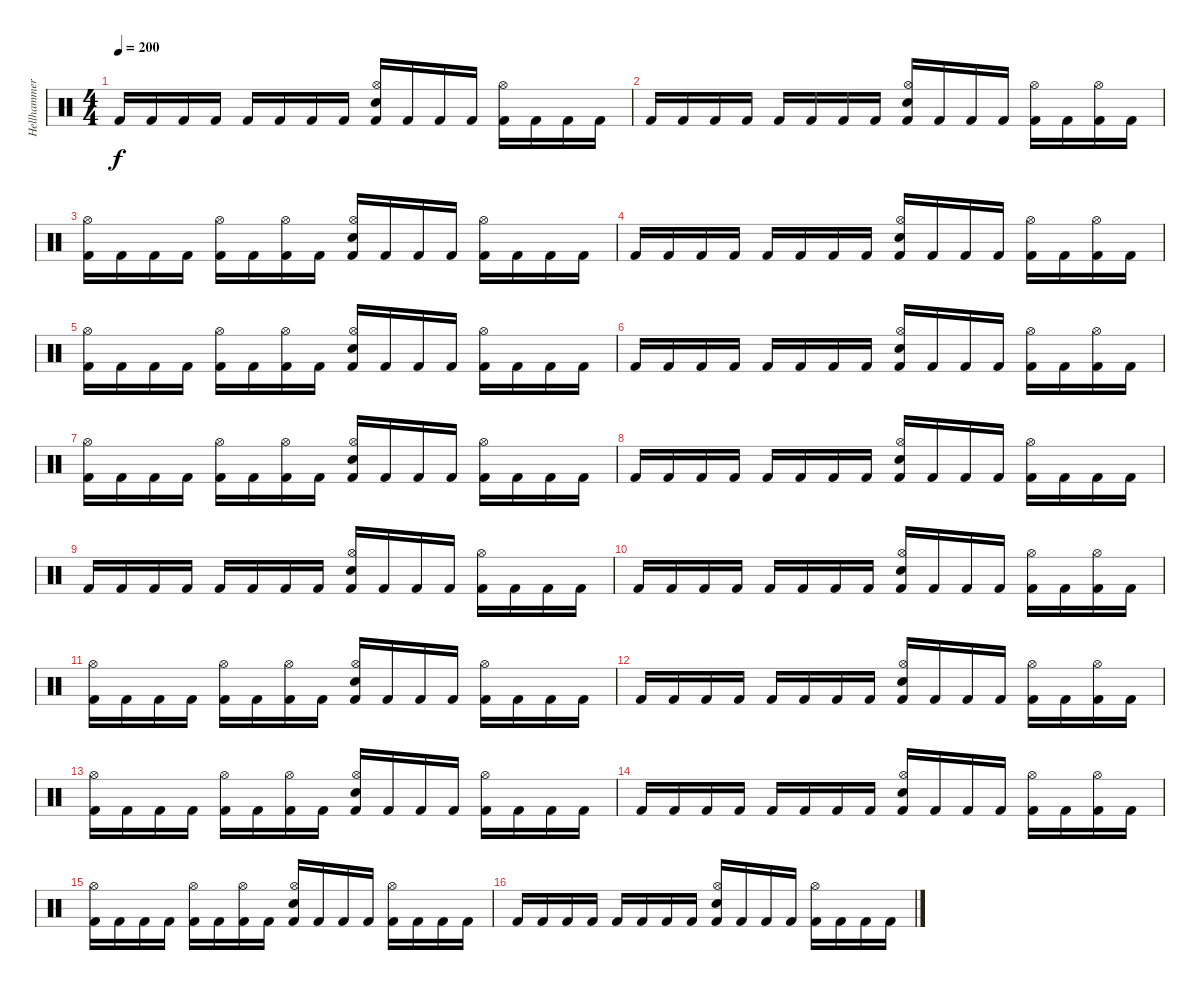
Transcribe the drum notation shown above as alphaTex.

\track ("Hellhammer" "Hellhammer") {instrument percussion}
\staff {score}
\articulation defaults
\ts (4 4)
\tempo 200
\clef neutral
\ks c "Kick (hit) 2".16{dy f} "Kick (hit) 2".16 "Kick (hit) 2".16 "Kick (hit) 2".16 "Kick (hit) 2".16 "Kick (hit) 2".16 "Kick (hit) 2".16 "Kick (hit) 2".16
("Hi-Hat (open)" "Electric Snare (hit)" "Kick (hit) 2").16 "Kick (hit) 2".16 "Kick (hit) 2".16 "Kick (hit) 2".16 ("Hi-Hat (open)" "Kick (hit) 2").16 "Kick (hit) 2".16 "Kick (hit) 2".16 "Kick (hit) 2".16 |
"Kick (hit) 2".16{balance 8} "Kick (hit) 2".16 "Kick (hit) 2".16 "Kick (hit) 2".16 "Kick (hit) 2".16 "Kick (hit) 2".16 "Kick (hit) 2".16 "Kick (hit) 2".16 ("Hi-Hat (open)" "Electric Snare (hit)" "Kick (hit) 2").16 "Kick (hit) 2".16 "Kick (hit) 2".16 "Kick (hit) 2".16 ("Hi-Hat (open)" "Kick (hit) 2").16 "Kick (hit) 2".16 ("Hi-Hat (open)" "Kick (hit) 2").16 "Kick (hit) 2".16 |
("Hi-Hat (open)" "Kick (hit) 2").16 "Kick (hit) 2".16 "Kick (hit) 2".16 "Kick (hit) 2".16 ("Hi-Hat (open)" "Kick (hit) 2").16 "Kick (hit) 2".16 ("Hi-Hat (open)" "Kick (hit) 2").16 "Kick (hit) 2".16 ("Hi-Hat (open)" "Electric Snare (hit)" "Kick (hit) 2").16 "Kick (hit) 2".16 "Kick (hit) 2".16 "Kick (hit) 2".16 ("Hi-Hat (open)" "Kick (hit) 2").16 "Kick (hit) 2".16 "Kick (hit) 2".16 "Kick (hit) 2".16 |
"Kick (hit) 2".16 "Kick (hit) 2".16 "Kick (hit) 2".16 "Kick (hit) 2".16 "Kick (hit) 2".16 "Kick (hit) 2".16 "Kick (hit) 2".16 "Kick (hit) 2".16 ("Hi-Hat (open)" "Electric Snare (hit)" "Kick (hit) 2").16 "Kick (hit) 2".16 "Kick (hit) 2".16 "Kick (hit) 2".16 ("Hi-Hat (open)" "Kick (hit) 2").16 "Kick (hit) 2".16 ("Hi-Hat (open)" "Kick (hit) 2").16 "Kick (hit) 2".16 |
("Hi-Hat (open)" "Kick (hit) 2").16{balance 8} "Kick (hit) 2".16 "Kick (hit) 2".16 "Kick (hit) 2".16 ("Hi-Hat (open)" "Kick (hit) 2").16 "Kick (hit) 2".16 ("Hi-Hat (open)" "Kick (hit) 2").16 "Kick (hit) 2".16 ("Hi-Hat (open)" "Electric Snare (hit)" "Kick (hit) 2").16 "Kick (hit) 2".16 "Kick (hit) 2".16 "Kick (hit) 2".16 ("Hi-Hat (open)" "Kick (hit) 2").16 "Kick (hit) 2".16 "Kick (hit) 2".16 "Kick (hit) 2".16 |
"Kick (hit) 2".16 "Kick (hit) 2".16 "Kick (hit) 2".16 "Kick (hit) 2".16 "Kick (hit) 2".16 "Kick (hit) 2".16 "Kick (hit) 2".16 "Kick (hit) 2".16 ("Hi-Hat (open)" "Electric Snare (hit)" "Kick (hit) 2").16 "Kick (hit) 2".16 "Kick (hit) 2".16 "Kick (hit) 2".16 ("Hi-Hat (open)" "Kick (hit) 2").16 "Kick (hit) 2".16 ("Hi-Hat (open)" "Kick (hit) 2").16 "Kick (hit) 2".16 |
("Hi-Hat (open)" "Kick (hit) 2").16{balance 8} "Kick (hit) 2".16 "Kick (hit) 2".16 "Kick (hit) 2".16 ("Hi-Hat (open)" "Kick (hit) 2").16 "Kick (hit) 2".16 ("Hi-Hat (open)" "Kick (hit) 2").16 "Kick (hit) 2".16 ("Hi-Hat (open)" "Electric Snare (hit)" "Kick (hit) 2").16 "Kick (hit) 2".16 "Kick (hit) 2".16 "Kick (hit) 2".16 ("Hi-Hat (open)" "Kick (hit) 2").16 "Kick (hit) 2".16 "Kick (hit) 2".16 "Kick (hit) 2".16 |
"Kick (hit) 2".16 "Kick (hit) 2".16 "Kick (hit) 2".16 "Kick (hit) 2".16 "Kick (hit) 2".16 "Kick (hit) 2".16 "Kick (hit) 2".16 "Kick (hit) 2".16 ("Hi-Hat (open)" "Electric Snare (hit)" "Kick (hit) 2").16 "Kick (hit) 2".16 "Kick (hit) 2".16 "Kick (hit) 2".16 ("Hi-Hat (open)" "Kick (hit) 2").16 "Kick (hit) 2".16 "Kick (hit) 2".16 "Kick (hit) 2".16 |
"Kick (hit) 2".16 "Kick (hit) 2".16 "Kick (hit) 2".16 "Kick (hit) 2".16 "Kick (hit) 2".16 "Kick (hit) 2".16 "Kick (hit) 2".16 "Kick (hit) 2".16 ("Hi-Hat (open)" "Electric Snare (hit)" "Kick (hit) 2").16 "Kick (hit) 2".16 "Kick (hit) 2".16 "Kick (hit) 2".16 ("Hi-Hat (open)" "Kick (hit) 2").16 "Kick (hit) 2".16 "Kick (hit) 2".16 "Kick (hit) 2".16 |
"Kick (hit) 2".16{balance 8} "Kick (hit) 2".16 "Kick (hit) 2".16 "Kick (hit) 2".16 "Kick (hit) 2".16 "Kick (hit) 2".16 "Kick (hit) 2".16 "Kick (hit) 2".16 ("Hi-Hat (open)" "Electric Snare (hit)" "Kick (hit) 2").16 "Kick (hit) 2".16 "Kick (hit) 2".16 "Kick (hit) 2".16 ("Hi-Hat (open)" "Kick (hit) 2").16 "Kick (hit) 2".16 ("Hi-Hat (open)" "Kick (hit) 2").16 "Kick (hit) 2".16 |
("Hi-Hat (open)" "Kick (hit) 2").16 "Kick (hit) 2".16 "Kick (hit) 2".16 "Kick (hit) 2".16 ("Hi-Hat (open)" "Kick (hit) 2").16 "Kick (hit) 2".16 ("Hi-Hat (open)" "Kick (hit) 2").16 "Kick (hit) 2".16 ("Hi-Hat (open)" "Electric Snare (hit)" "Kick (hit) 2").16 "Kick (hit) 2".16 "Kick (hit) 2".16 "Kick (hit) 2".16 ("Hi-Hat (open)" "Kick (hit) 2").16 "Kick (hit) 2".16 "Kick (hit) 2".16 "Kick (hit) 2".16 |
"Kick (hit) 2".16 "Kick (hit) 2".16 "Kick (hit) 2".16 "Kick (hit) 2".16 "Kick (hit) 2".16 "Kick (hit) 2".16 "Kick (hit) 2".16 "Kick (hit) 2".16 ("Hi-Hat (open)" "Electric Snare (hit)" "Kick (hit) 2").16 "Kick (hit) 2".16 "Kick (hit) 2".16 "Kick (hit) 2".16 ("Hi-Hat (open)" "Kick (hit) 2").16 "Kick (hit) 2".16 ("Hi-Hat (open)" "Kick (hit) 2").16 "Kick (hit) 2".16 |
("Hi-Hat (open)" "Kick (hit) 2").16{balance 8} "Kick (hit) 2".16 "Kick (hit) 2".16 "Kick (hit) 2".16 ("Hi-Hat (open)" "Kick (hit) 2").16 "Kick (hit) 2".16 ("Hi-Hat (open)" "Kick (hit) 2").16 "Kick (hit) 2".16 ("Hi-Hat (open)" "Electric Snare (hit)" "Kick (hit) 2").16 "Kick (hit) 2".16 "Kick (hit) 2".16 "Kick (hit) 2".16 ("Hi-Hat (open)" "Kick (hit) 2").16 "Kick (hit) 2".16 "Kick (hit) 2".16 "Kick (hit) 2".16 |
"Kick (hit) 2".16 "Kick (hit) 2".16 "Kick (hit) 2".16 "Kick (hit) 2".16 "Kick (hit) 2".16 "Kick (hit) 2".16 "Kick (hit) 2".16 "Kick (hit) 2".16 ("Hi-Hat (open)" "Electric Snare (hit)" "Kick (hit) 2").16 "Kick (hit) 2".16 "Kick (hit) 2".16 "Kick (hit) 2".16 ("Hi-Hat (open)" "Kick (hit) 2").16 "Kick (hit) 2".16 ("Hi-Hat (open)" "Kick (hit) 2").16 "Kick (hit) 2".16 |
("Hi-Hat (open)" "Kick (hit) 2").16{balance 8} "Kick (hit) 2".16 "Kick (hit) 2".16 "Kick (hit) 2".16 ("Hi-Hat (open)" "Kick (hit) 2").16 "Kick (hit) 2".16 ("Hi-Hat (open)" "Kick (hit) 2").16 "Kick (hit) 2".16 ("Hi-Hat (open)" "Electric Snare (hit)" "Kick (hit) 2").16 "Kick (hit) 2".16 "Kick (hit) 2".16 "Kick (hit) 2".16 ("Hi-Hat (open)" "Kick (hit) 2").16 "Kick (hit) 2".16 "Kick (hit) 2".16 "Kick (hit) 2".16 |
"Kick (hit) 2".16 "Kick (hit) 2".16 "Kick (hit) 2".16 "Kick (hit) 2".16 "Kick (hit) 2".16 "Kick (hit) 2".16 "Kick (hit) 2".16 "Kick (hit) 2".16 ("Hi-Hat (open)" "Electric Snare (hit)" "Kick (hit) 2").16 "Kick (hit) 2".16 "Kick (hit) 2".16 "Kick (hit) 2".16 ("Hi-Hat (open)" "Kick (hit) 2").16 "Kick (hit) 2".16 "Kick (hit) 2".16 "Kick (hit) 2".16
